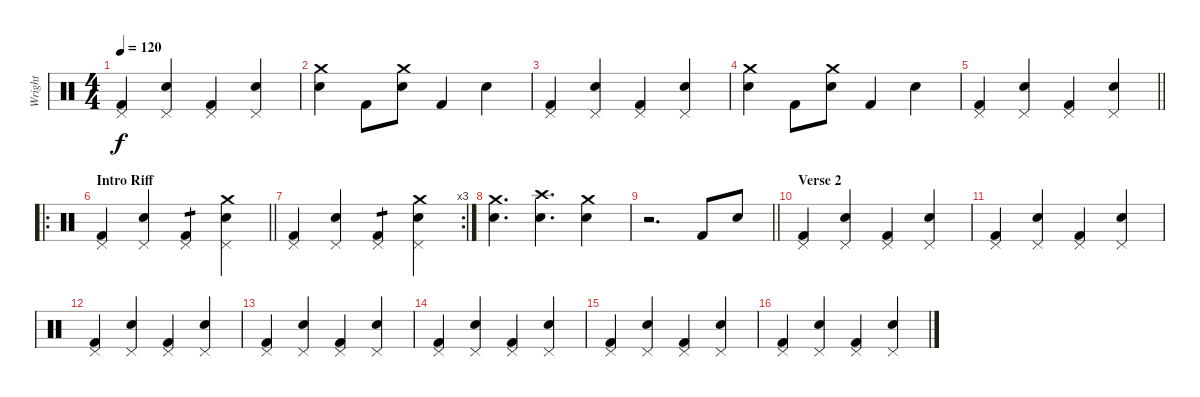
\track ("Wright" "Wright") {instrument percussion}
\staff {score}
\articulation defaults
\ts (4 4)
\tempo 120
\clef neutral
\ks c
("Kick (hit) 2" "Pedal Hi-Hat (hit)").4{dy f} ("Snare (hit) 2" "Pedal Hi-Hat (hit)").4 ("Kick (hit) 2" "Pedal Hi-Hat (hit)").4 ("Snare (hit) 2" "Pedal Hi-Hat (hit)").4 |
("Snare (hit) 2" "Crash medium (hit)").4 "Kick (hit) 2".8 ("Snare (hit) 2" "Crash medium (hit)").8 "Kick (hit) 2".4 "Snare (hit) 2".4 |
("Kick (hit) 2" "Pedal Hi-Hat (hit)").4 ("Snare (hit) 2" "Pedal Hi-Hat (hit)").4 ("Kick (hit) 2" "Pedal Hi-Hat (hit)").4 ("Snare (hit) 2" "Pedal Hi-Hat (hit)").4 |
("Snare (hit) 2" "Crash medium (hit)").4 "Kick (hit) 2".8 ("Snare (hit) 2" "Crash medium (hit)").8 "Kick (hit) 2".4 "Snare (hit) 2".4 |
\barLineRight lightlight
("Kick (hit) 2" "Pedal Hi-Hat (hit)").4 ("Snare (hit) 2" "Pedal Hi-Hat (hit)").4 ("Kick (hit) 2" "Pedal Hi-Hat (hit)").4 ("Snare (hit) 2" "Pedal Hi-Hat (hit)").4 |
\ro
\section ("" "Intro Riff")
\barLineRight lightlight
("Kick (hit) 2" "Pedal Hi-Hat (hit)").4 ("Snare (hit) 2" "Pedal Hi-Hat (hit)").4 ("Kick (hit) 2" "Pedal Hi-Hat (hit)").4{tp 1} ("Snare (hit) 2" "Pedal Hi-Hat (hit)" "Crash medium (hit)").4 |
\rc 3
("Kick (hit) 2" "Pedal Hi-Hat (hit)").4 ("Snare (hit) 2" "Pedal Hi-Hat (hit)").4 ("Kick (hit) 2" "Pedal Hi-Hat (hit)").4{tp 1} ("Snare (hit) 2" "Pedal Hi-Hat (hit)" "Crash medium (hit)").4 |
("Snare (hit) 2" "Crash medium (hit)").4{d} ("Snare (hit) 2" "Crash high (hit)").4{d} ("Snare (hit) 2" "Crash medium (hit)").4 |
\barLineRight lightlight
r.2{d} "Kick (hit) 2".8 "Snare (hit) 2".8 |
\section ("" "Verse 2")
("Kick (hit) 2" "Pedal Hi-Hat (hit)").4 ("Snare (hit) 2" "Pedal Hi-Hat (hit)").4 ("Kick (hit) 2" "Pedal Hi-Hat (hit)").4 ("Snare (hit) 2" "Pedal Hi-Hat (hit)").4 |
("Kick (hit) 2" "Pedal Hi-Hat (hit)").4 ("Snare (hit) 2" "Pedal Hi-Hat (hit)").4 ("Kick (hit) 2" "Pedal Hi-Hat (hit)").4 ("Snare (hit) 2" "Pedal Hi-Hat (hit)").4 |
("Kick (hit) 2" "Pedal Hi-Hat (hit)").4 ("Snare (hit) 2" "Pedal Hi-Hat (hit)").4 ("Kick (hit) 2" "Pedal Hi-Hat (hit)").4 ("Snare (hit) 2" "Pedal Hi-Hat (hit)").4 |
("Kick (hit) 2" "Pedal Hi-Hat (hit)").4 ("Snare (hit) 2" "Pedal Hi-Hat (hit)").4 ("Kick (hit) 2" "Pedal Hi-Hat (hit)").4 ("Snare (hit) 2" "Pedal Hi-Hat (hit)").4 |
("Kick (hit) 2" "Pedal Hi-Hat (hit)").4 ("Snare (hit) 2" "Pedal Hi-Hat (hit)").4 ("Kick (hit) 2" "Pedal Hi-Hat (hit)").4 ("Snare (hit) 2" "Pedal Hi-Hat (hit)").4 |
("Kick (hit) 2" "Pedal Hi-Hat (hit)").4 ("Snare (hit) 2" "Pedal Hi-Hat (hit)").4 ("Kick (hit) 2" "Pedal Hi-Hat (hit)").4 ("Snare (hit) 2" "Pedal Hi-Hat (hit)").4 |
("Kick (hit) 2" "Pedal Hi-Hat (hit)").4 ("Snare (hit) 2" "Pedal Hi-Hat (hit)").4 ("Kick (hit) 2" "Pedal Hi-Hat (hit)").4 ("Snare (hit) 2" "Pedal Hi-Hat (hit)").4
